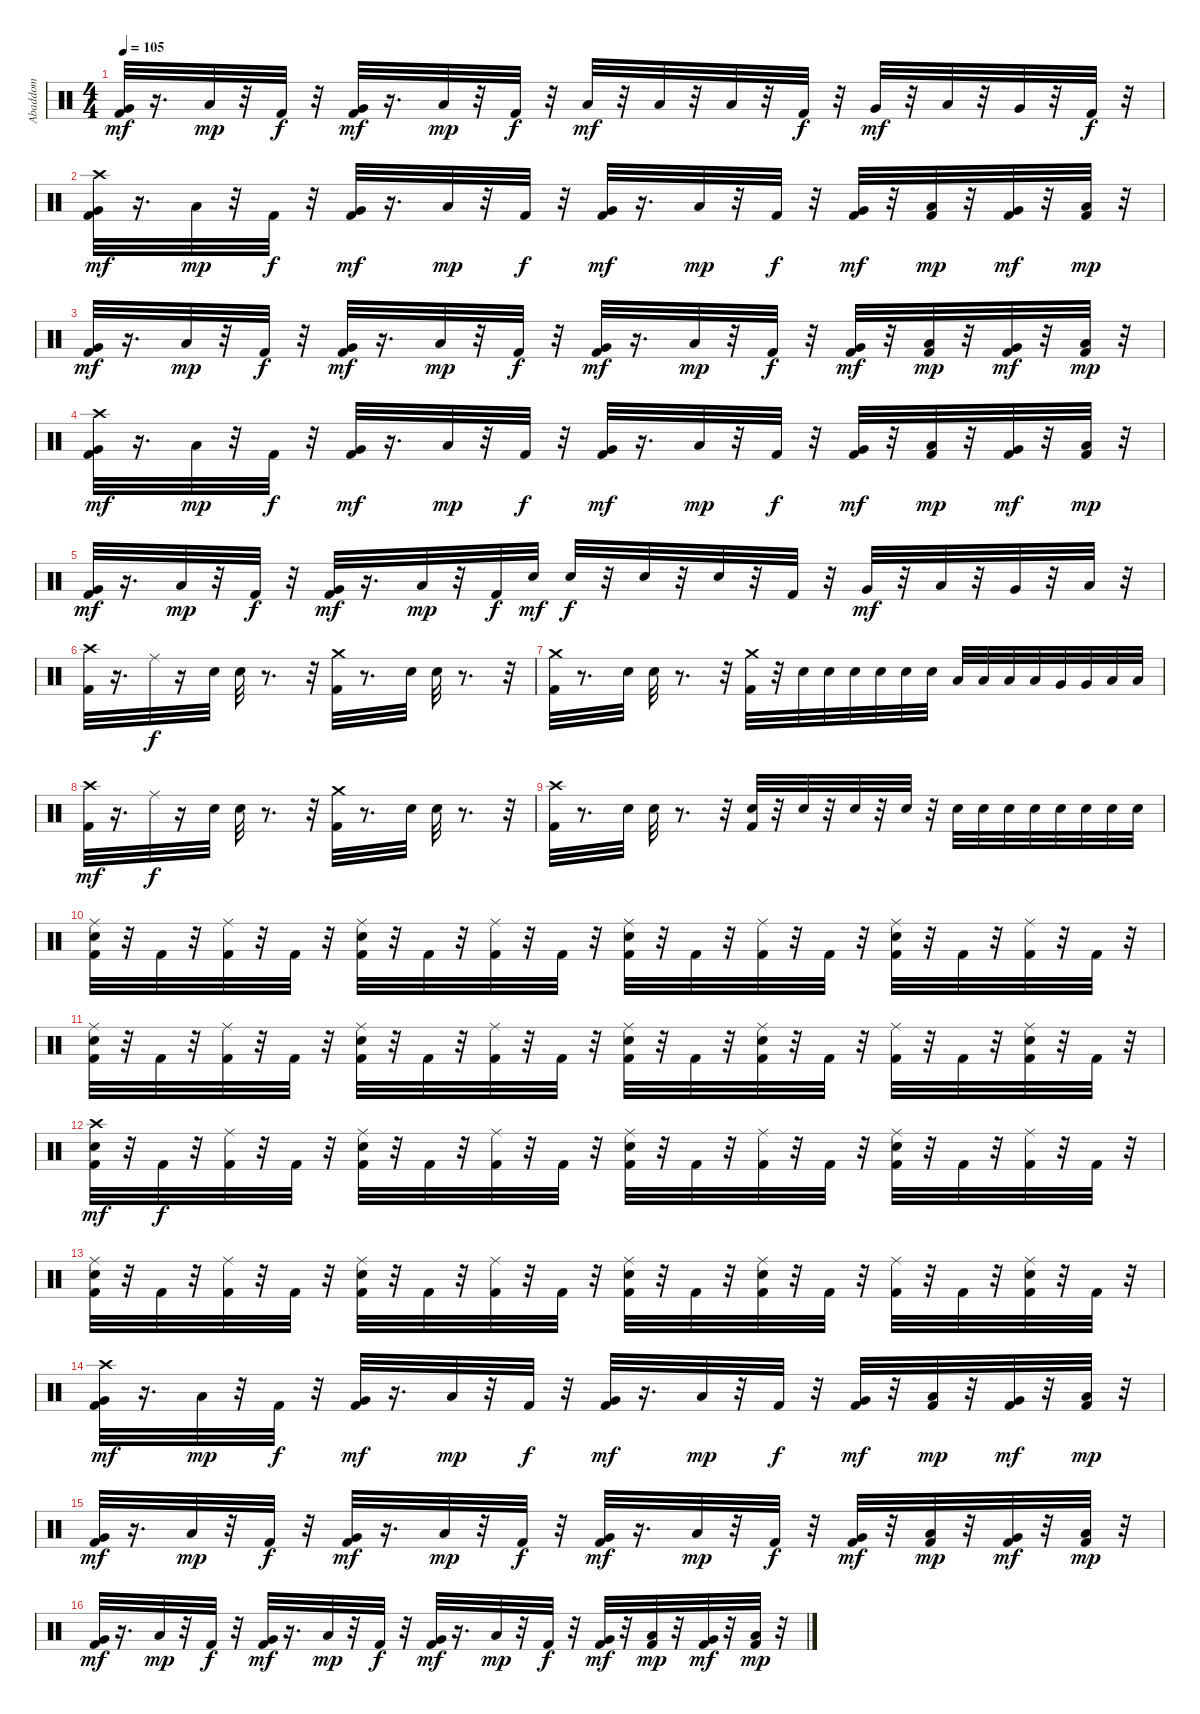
\track ("Abaddom" "Abaddom") {instrument percussion}
\staff {score}
\articulation defaults
\ts (4 4)
\tempo 105
\clef neutral
\ks c
("Very Low Tom (hit)" "Kick (hit) 2").32{dy mf} r.16{d} "Low Floor Tom (hit)".32{dy mp} r.32 "Kick (hit) 2".32{dy f} r.32 ("Kick (hit) 2" "Very Low Tom (hit)").32{dy mf} r.16{d} "Low Floor Tom (hit)".32{dy mp} r.32 "Kick (hit) 2".32{dy f} r.32 "Low Tom (hit)".32{dy mf} r.32 "Low Tom (hit)".32 r.32 "Low Tom (hit)".32 r.32 "Kick (hit) 2".32{dy f} r.32 "Very Low Tom (hit)".32{dy mf} r.32 "Low Tom (hit)".32 r.32 "Very Low Tom (hit)".32 r.32 "Kick (hit) 2".32{dy f} r.32 |
("Crash high (hit)" "Very Low Tom (hit)" "Kick (hit) 2").32{dy mf} r.16{d} "Low Floor Tom (hit)".32{dy mp} r.32 "Kick (hit) 2".32{dy f} r.32 ("Kick (hit) 2" "Very Low Tom (hit)").32{dy mf} r.16{d} "Low Floor Tom (hit)".32{dy mp} r.32 "Kick (hit) 2".32{dy f} r.32 ("Kick (hit) 2" "Very Low Tom (hit)").32{dy mf} r.16{d} "Low Floor Tom (hit)".32{dy mp} r.32 "Kick (hit) 2".32{dy f} r.32 ("Kick (hit) 2" "Very Low Tom (hit)").32{dy mf} r.32 ("Low Floor Tom (hit)" "Kick (hit) 2").32{dy mp} r.32 ("Kick (hit) 2" "Very Low Tom (hit)").32{dy mf} r.32 ("Kick (hit) 2" "Low Floor Tom (hit)").32{dy mp} r.32 |
("Very Low Tom (hit)" "Kick (hit) 2").32{dy mf} r.16{d} "Low Floor Tom (hit)".32{dy mp} r.32 "Kick (hit) 2".32{dy f} r.32 ("Kick (hit) 2" "Very Low Tom (hit)").32{dy mf} r.16{d} "Low Floor Tom (hit)".32{dy mp} r.32 "Kick (hit) 2".32{dy f} r.32 ("Kick (hit) 2" "Very Low Tom (hit)").32{dy mf} r.16{d} "Low Floor Tom (hit)".32{dy mp} r.32 "Kick (hit) 2".32{dy f} r.32 ("Kick (hit) 2" "Very Low Tom (hit)").32{dy mf} r.32 ("Low Floor Tom (hit)" "Kick (hit) 2").32{dy mp} r.32 ("Kick (hit) 2" "Very Low Tom (hit)").32{dy mf} r.32 ("Kick (hit) 2" "Low Floor Tom (hit)").32{dy mp} r.32 |
("Crash high (hit)" "Very Low Tom (hit)" "Kick (hit) 2").32{dy mf} r.16{d} "Low Floor Tom (hit)".32{dy mp} r.32 "Kick (hit) 2".32{dy f} r.32 ("Kick (hit) 2" "Very Low Tom (hit)").32{dy mf} r.16{d} "Low Floor Tom (hit)".32{dy mp} r.32 "Kick (hit) 2".32{dy f} r.32 ("Kick (hit) 2" "Very Low Tom (hit)").32{dy mf} r.16{d} "Low Floor Tom (hit)".32{dy mp} r.32 "Kick (hit) 2".32{dy f} r.32 ("Kick (hit) 2" "Very Low Tom (hit)").32{dy mf} r.32 ("Low Floor Tom (hit)" "Kick (hit) 2").32{dy mp} r.32 ("Kick (hit) 2" "Very Low Tom (hit)").32{dy mf} r.32 ("Kick (hit) 2" "Low Floor Tom (hit)").32{dy mp} r.32 |
("Very Low Tom (hit)" "Kick (hit) 2").32{dy mf} r.16{d} "Low Floor Tom (hit)".32{dy mp} r.32 "Kick (hit) 2".32{dy f} r.32 ("Kick (hit) 2" "Very Low Tom (hit)").32{dy mf} r.16{d} "Low Floor Tom (hit)".32{dy mp} r.32 "Kick (hit) 2".32{dy f} "Snare (hit) 2".32{dy mf} "Snare (hit) 2".32{dy f} r.32 "Snare (hit) 2".32 r.32 "Snare (hit) 2".32 r.32 "Kick (hit) 2".32 r.32 "Very Low Tom (hit)".32{dy mf} r.32 "Low Tom (hit)".32 r.32 "Very Low Tom (hit)".32 r.32 "Low Floor Tom (hit)".32 r.32 |
("Crash high (hit)" "Kick (hit) 2").32 r.16{d} "Ride (middle)".32{dy f} r.16 "Snare (hit) 2".32 "Snare (hit) 2".32 r.8{d} r.32 ("Crash medium (hit)" "Kick (hit) 2").32 r.8{d} "Snare (hit) 2".32 "Snare (hit) 2".32 r.8{d} r.32 |
("Crash medium (hit)" "Kick (hit) 2").32 r.8{d} "Snare (hit) 2".32 "Snare (hit) 2".32 r.8{d} r.32 ("Crash medium (hit)" "Kick (hit) 2").32 r.32 "Snare (hit) 2".32 "Snare (hit) 2".32 "Snare (hit) 2".32 "Snare (hit) 2".32 "Snare (hit) 2".32 "Snare (hit) 2".32 "Low Tom (hit)".32 "Low Tom (hit)".32 "Low Tom (hit)".32 "Low Tom (hit)".32 "Very Low Tom (hit)".32 "Very Low Tom (hit)".32 "Low Floor Tom (hit)".32 "Low Floor Tom (hit)".32 |
("Kick (hit) 2" "Crash high (hit)").32{dy mf} r.16{d} "Ride (middle)".32{dy f} r.16 "Snare (hit) 2".32 "Snare (hit) 2".32 r.8{d} r.32 ("Crash medium (hit)" "Kick (hit) 2").32 r.8{d} "Snare (hit) 2".32 "Snare (hit) 2".32 r.8{d} r.32 |
("Kick (hit) 2" "Crash high (hit)").32 r.8{d} "Snare (hit) 2".32 "Snare (hit) 2".32 r.8{d} r.32 ("Snare (hit) 2" "Kick (hit) 2").32 r.32 "Snare (hit) 2".32 r.32 "Snare (hit) 2".32 r.32 "Snare (hit) 2".32 r.32 "Snare (hit) 2".32 "Snare (hit) 2".32 "Snare (hit) 2".32 "Snare (hit) 2".32 "Snare (hit) 2".32 "Snare (hit) 2".32 "Snare (hit) 2".32 "Snare (hit) 2".32 |
("Snare (hit) 2" "Kick (hit) 2" "Ride (middle)").32 r.32 "Kick (hit) 2".32 r.32 ("Ride (middle)" "Kick (hit) 2").32 r.32 "Kick (hit) 2".32 r.32 ("Snare (hit) 2" "Ride (middle)" "Kick (hit) 2").32 r.32 "Kick (hit) 2".32 r.32 ("Ride (middle)" "Kick (hit) 2").32 r.32 "Kick (hit) 2".32 r.32 ("Snare (hit) 2" "Kick (hit) 2" "Ride (middle)").32 r.32 "Kick (hit) 2".32 r.32 ("Ride (middle)" "Kick (hit) 2").32 r.32 "Kick (hit) 2".32 r.32 ("Ride (middle)" "Snare (hit) 2" "Kick (hit) 2").32 r.32 "Kick (hit) 2".32 r.32 ("Kick (hit) 2" "Ride (middle)").32 r.32 "Kick (hit) 2".32 r.32 |
("Snare (hit) 2" "Ride (middle)" "Kick (hit) 2").32 r.32 "Kick (hit) 2".32 r.32 ("Kick (hit) 2" "Ride (middle)").32 r.32 "Kick (hit) 2".32 r.32 ("Snare (hit) 2" "Kick (hit) 2" "Ride (middle)").32 r.32 "Kick (hit) 2".32 r.32 ("Kick (hit) 2" "Ride (middle)").32 r.32 "Kick (hit) 2".32 r.32 ("Ride (middle)" "Snare (hit) 2" "Kick (hit) 2").32 r.32 "Kick (hit) 2".32 r.32 ("Ride (middle)" "Snare (hit) 2" "Kick (hit) 2").32 r.32 "Kick (hit) 2".32 r.32 ("Kick (hit) 2" "Ride (middle)").32 r.32 "Kick (hit) 2".32 r.32 ("Kick (hit) 2" "Snare (hit) 2" "Ride (middle)").32 r.32 "Kick (hit) 2".32 r.32 |
("Crash high (hit)" "Snare (hit) 2" "Kick (hit) 2").32{dy mf} r.32 "Kick (hit) 2".32{dy f} r.32 ("Kick (hit) 2" "Ride (middle)").32 r.32 "Kick (hit) 2".32 r.32 ("Ride (middle)" "Snare (hit) 2" "Kick (hit) 2").32 r.32 "Kick (hit) 2".32 r.32 ("Kick (hit) 2" "Ride (middle)").32 r.32 "Kick (hit) 2".32 r.32 ("Snare (hit) 2" "Kick (hit) 2" "Ride (middle)").32 r.32 "Kick (hit) 2".32 r.32 ("Kick (hit) 2" "Ride (middle)").32 r.32 "Kick (hit) 2".32 r.32 ("Ride (middle)" "Snare (hit) 2" "Kick (hit) 2").32 r.32 "Kick (hit) 2".32 r.32 ("Ride (middle)" "Kick (hit) 2").32 r.32 "Kick (hit) 2".32 r.32 |
("Kick (hit) 2" "Ride (middle)" "Snare (hit) 2").32 r.32 "Kick (hit) 2".32 r.32 ("Kick (hit) 2" "Ride (middle)").32 r.32 "Kick (hit) 2".32 r.32 ("Snare (hit) 2" "Kick (hit) 2" "Ride (middle)").32 r.32 "Kick (hit) 2".32 r.32 ("Kick (hit) 2" "Ride (middle)").32 r.32 "Kick (hit) 2".32 r.32 ("Ride (middle)" "Snare (hit) 2" "Kick (hit) 2").32 r.32 "Kick (hit) 2".32 r.32 ("Ride (middle)" "Snare (hit) 2" "Kick (hit) 2").32 r.32 "Kick (hit) 2".32 r.32 ("Kick (hit) 2" "Ride (middle)").32 r.32 "Kick (hit) 2".32 r.32 ("Snare (hit) 2" "Kick (hit) 2" "Ride (middle)").32 r.32 "Kick (hit) 2".32 r.32 |
("Crash high (hit)" "Very Low Tom (hit)" "Kick (hit) 2").32{dy mf} r.16{d} "Low Floor Tom (hit)".32{dy mp} r.32 "Kick (hit) 2".32{dy f} r.32 ("Kick (hit) 2" "Very Low Tom (hit)").32{dy mf} r.16{d} "Low Floor Tom (hit)".32{dy mp} r.32 "Kick (hit) 2".32{dy f} r.32 ("Kick (hit) 2" "Very Low Tom (hit)").32{dy mf} r.16{d} "Low Floor Tom (hit)".32{dy mp} r.32 "Kick (hit) 2".32{dy f} r.32 ("Kick (hit) 2" "Very Low Tom (hit)").32{dy mf} r.32 ("Low Floor Tom (hit)" "Kick (hit) 2").32{dy mp} r.32 ("Kick (hit) 2" "Very Low Tom (hit)").32{dy mf} r.32 ("Kick (hit) 2" "Low Floor Tom (hit)").32{dy mp} r.32 |
("Very Low Tom (hit)" "Kick (hit) 2").32{dy mf} r.16{d} "Low Floor Tom (hit)".32{dy mp} r.32 "Kick (hit) 2".32{dy f} r.32 ("Kick (hit) 2" "Very Low Tom (hit)").32{dy mf} r.16{d} "Low Floor Tom (hit)".32{dy mp} r.32 "Kick (hit) 2".32{dy f} r.32 ("Kick (hit) 2" "Very Low Tom (hit)").32{dy mf} r.16{d} "Low Floor Tom (hit)".32{dy mp} r.32 "Kick (hit) 2".32{dy f} r.32 ("Kick (hit) 2" "Very Low Tom (hit)").32{dy mf} r.32 ("Low Floor Tom (hit)" "Kick (hit) 2").32{dy mp} r.32 ("Kick (hit) 2" "Very Low Tom (hit)").32{dy mf} r.32 ("Kick (hit) 2" "Low Floor Tom (hit)").32{dy mp} r.32 |
("Very Low Tom (hit)" "Kick (hit) 2").32{dy mf} r.16{d} "Low Floor Tom (hit)".32{dy mp} r.32 "Kick (hit) 2".32{dy f} r.32 ("Kick (hit) 2" "Very Low Tom (hit)").32{dy mf} r.16{d} "Low Floor Tom (hit)".32{dy mp} r.32 "Kick (hit) 2".32{dy f} r.32 ("Kick (hit) 2" "Very Low Tom (hit)").32{dy mf} r.16{d} "Low Floor Tom (hit)".32{dy mp} r.32 "Kick (hit) 2".32{dy f} r.32 ("Kick (hit) 2" "Very Low Tom (hit)").32{dy mf} r.32 ("Low Floor Tom (hit)" "Kick (hit) 2").32{dy mp} r.32 ("Kick (hit) 2" "Very Low Tom (hit)").32{dy mf} r.32 ("Kick (hit) 2" "Low Floor Tom (hit)").32{dy mp} r.32
